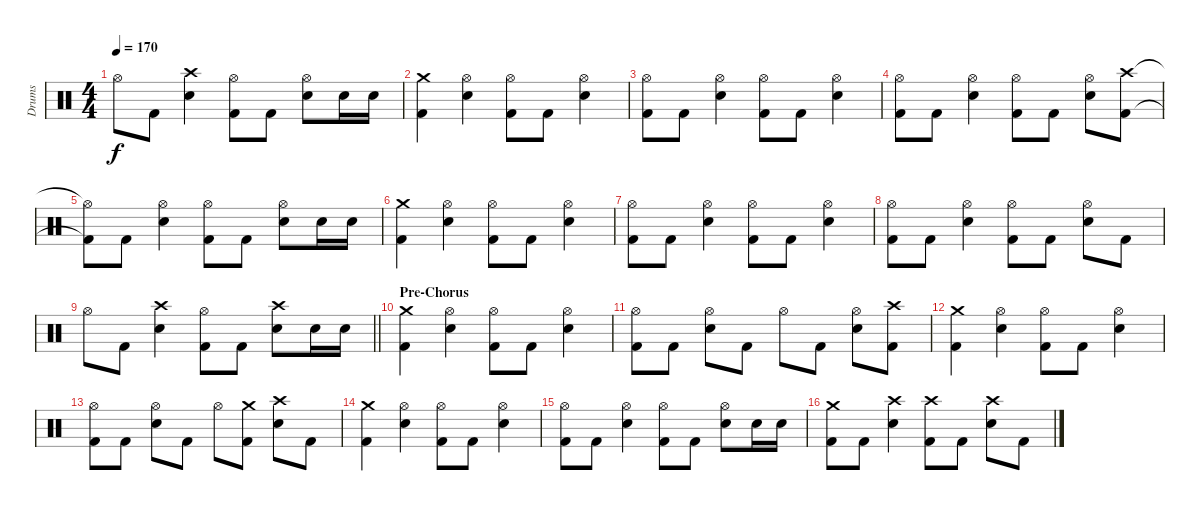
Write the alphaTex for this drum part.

\track ("Drums" "Drums") {instrument percussion}
\staff {score}
\articulation defaults
\ts (4 4)
\tempo 170
\clef neutral
\ks c "Hi-Hat (open)".8{dy f} "Kick (hit) 2".8
("Crash high (hit)" "Electric Snare (hit)").4 ("Hi-Hat (open)" "Kick (hit) 2").8 "Kick (hit) 2".8 ("Hi-Hat (open)" "Electric Snare (hit)").8 "Electric Snare (hit)".16 "Electric Snare (hit)".16 |
("Crash medium (hit)" "Kick (hit) 2").4 ("Hi-Hat (open)" "Electric Snare (hit)").4 ("Hi-Hat (open)" "Kick (hit) 2").8 "Kick (hit) 2".8 ("Hi-Hat (open)" "Electric Snare (hit)").4 |
("Hi-Hat (open)" "Kick (hit) 2").8 "Kick (hit) 2".8 ("Hi-Hat (open)" "Electric Snare (hit)").4 ("Hi-Hat (open)" "Kick (hit) 2").8 "Kick (hit) 2".8 ("Hi-Hat (open)" "Electric Snare (hit)").4 |
("Hi-Hat (open)" "Kick (hit) 2").8 "Kick (hit) 2".8 ("Hi-Hat (open)" "Electric Snare (hit)").4 ("Hi-Hat (open)" "Kick (hit) 2").8 "Kick (hit) 2".8 ("Hi-Hat (open)" "Electric Snare (hit)").8 ("Crash high (hit)" "Kick (hit) 2").8 |
("Hi-Hat (open)"{t} "Kick (hit) 2"{t}).8 "Kick (hit) 2".8 ("Hi-Hat (open)" "Electric Snare (hit)").4 ("Hi-Hat (open)" "Kick (hit) 2").8 "Kick (hit) 2".8 ("Hi-Hat (open)" "Electric Snare (hit)").8 "Electric Snare (hit)".16 "Electric Snare (hit)".16 |
("Crash medium (hit)" "Kick (hit) 2").4 ("Hi-Hat (open)" "Electric Snare (hit)").4 ("Hi-Hat (open)" "Kick (hit) 2").8 "Kick (hit) 2".8 ("Hi-Hat (open)" "Electric Snare (hit)").4 |
("Hi-Hat (open)" "Kick (hit) 2").8 "Kick (hit) 2".8 ("Hi-Hat (open)" "Electric Snare (hit)").4 ("Hi-Hat (open)" "Kick (hit) 2").8 "Kick (hit) 2".8 ("Hi-Hat (open)" "Electric Snare (hit)").4 |
("Hi-Hat (open)" "Kick (hit) 2").8 "Kick (hit) 2".8 ("Hi-Hat (open)" "Electric Snare (hit)").4 ("Hi-Hat (open)" "Kick (hit) 2").8 "Kick (hit) 2".8 ("Hi-Hat (open)" "Electric Snare (hit)").8 "Kick (hit) 2".8 |
\barLineRight lightlight "Hi-Hat (open)".8 "Kick (hit) 2".8
("Crash high (hit)" "Electric Snare (hit)").4 ("Hi-Hat (open)" "Kick (hit) 2").8 "Kick (hit) 2".8 ("Crash high (hit)" "Electric Snare (hit)").8 "Electric Snare (hit)".16 "Electric Snare (hit)".16 |
\section ("" "Pre-Chorus")
("Crash medium (hit)" "Kick (hit) 2").4 ("Hi-Hat (open)" "Electric Snare (hit)").4 ("Hi-Hat (open)" "Kick (hit) 2").8 "Kick (hit) 2".8 ("Hi-Hat (open)" "Electric Snare (hit)").4 |
("Hi-Hat (open)" "Kick (hit) 2").8 "Kick (hit) 2".8 ("Hi-Hat (open)" "Electric Snare (hit)").8 "Kick (hit) 2".8 "Hi-Hat (open)".8 "Kick (hit) 2".8 ("Hi-Hat (open)" "Electric Snare (hit)").8 ("Crash high (hit)" "Kick (hit) 2").8 |
("Crash medium (hit)" "Kick (hit) 2").4 ("Hi-Hat (open)" "Electric Snare (hit)").4 ("Hi-Hat (open)" "Kick (hit) 2").8 "Kick (hit) 2".8 ("Hi-Hat (open)" "Electric Snare (hit)").4 |
("Hi-Hat (open)" "Kick (hit) 2").8 "Kick (hit) 2".8 ("Hi-Hat (open)" "Electric Snare (hit)").8 "Kick (hit) 2".8 "Hi-Hat (open)".8 ("Crash medium (hit)" "Kick (hit) 2").8 ("Crash high (hit)" "Electric Snare (hit)").8 "Kick (hit) 2".8 |
("Crash medium (hit)" "Kick (hit) 2").4 ("Hi-Hat (open)" "Electric Snare (hit)").4 ("Hi-Hat (open)" "Kick (hit) 2").8 "Kick (hit) 2".8 ("Hi-Hat (open)" "Electric Snare (hit)").4 |
("Hi-Hat (open)" "Kick (hit) 2").8 "Kick (hit) 2".8 ("Hi-Hat (open)" "Electric Snare (hit)").4 ("Hi-Hat (open)" "Kick (hit) 2").8 "Kick (hit) 2".8 ("Hi-Hat (open)" "Electric Snare (hit)").8 "Electric Snare (hit)".16 "Electric Snare (hit)".16 |
("Crash medium (hit)" "Kick (hit) 2").8 "Kick (hit) 2".8 ("Crash high (hit)" "Electric Snare (hit)").4 ("Crash high (hit)" "Kick (hit) 2").8 "Kick (hit) 2".8 ("Crash high (hit)" "Electric Snare (hit)").8 "Kick (hit) 2".8
